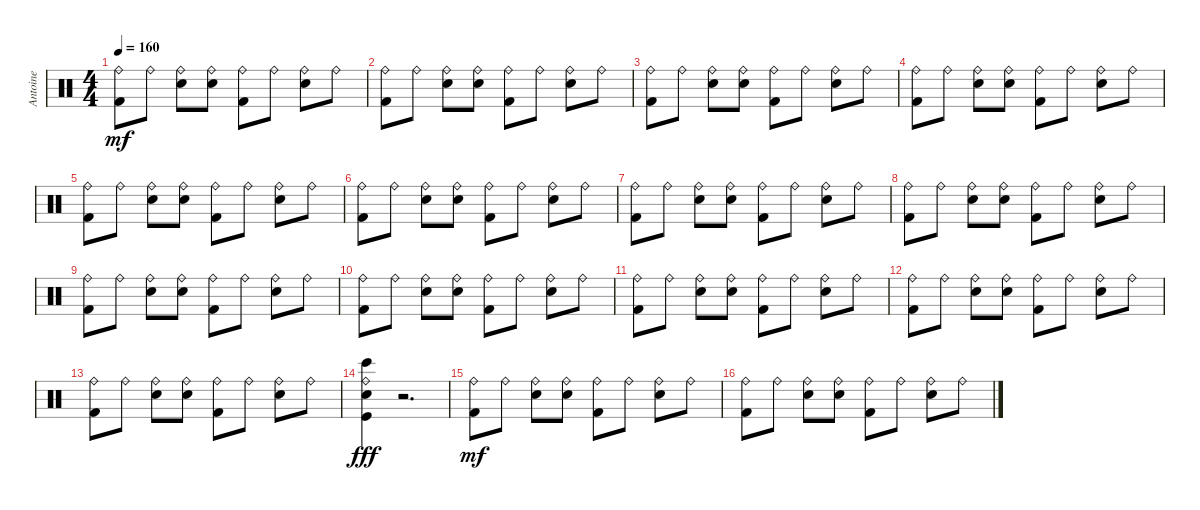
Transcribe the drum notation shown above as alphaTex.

\track ("Antoine" "Antoine") {instrument percussion}
\staff {score}
\articulation defaults
\ts (4 4)
\tempo 160
\clef neutral
\ks c
("Kick (hit) 2" "Ride (bell)").8{dy mf} "Ride (bell)".8 ("Electric Snare (hit)" "Ride (bell)").8 ("Electric Snare (hit)" "Ride (bell)").8 ("Kick (hit) 2" "Ride (bell)").8 "Ride (bell)".8 ("Electric Snare (hit)" "Ride (bell)").8 "Ride (bell)".8 |
("Kick (hit) 2" "Ride (bell)").8 "Ride (bell)".8 ("Electric Snare (hit)" "Ride (bell)").8 ("Electric Snare (hit)" "Ride (bell)").8 ("Kick (hit) 2" "Ride (bell)").8 "Ride (bell)".8 ("Electric Snare (hit)" "Ride (bell)").8 "Ride (bell)".8 |
("Kick (hit) 2" "Ride (bell)").8 "Ride (bell)".8 ("Electric Snare (hit)" "Ride (bell)").8 ("Electric Snare (hit)" "Ride (bell)").8 ("Kick (hit) 2" "Ride (bell)").8 "Ride (bell)".8 ("Electric Snare (hit)" "Ride (bell)").8 "Ride (bell)".8 |
("Kick (hit) 2" "Ride (bell)").8 "Ride (bell)".8 ("Electric Snare (hit)" "Ride (bell)").8 ("Electric Snare (hit)" "Ride (bell)").8 ("Kick (hit) 2" "Ride (bell)").8 "Ride (bell)".8 ("Electric Snare (hit)" "Ride (bell)").8 "Ride (bell)".8 |
("Kick (hit) 2" "Ride (bell)").8 "Ride (bell)".8 ("Electric Snare (hit)" "Ride (bell)").8 ("Electric Snare (hit)" "Ride (bell)").8 ("Kick (hit) 2" "Ride (bell)").8 "Ride (bell)".8 ("Electric Snare (hit)" "Ride (bell)").8 "Ride (bell)".8 |
("Kick (hit) 2" "Ride (bell)").8 "Ride (bell)".8 ("Electric Snare (hit)" "Ride (bell)").8 ("Electric Snare (hit)" "Ride (bell)").8 ("Kick (hit) 2" "Ride (bell)").8 "Ride (bell)".8 ("Electric Snare (hit)" "Ride (bell)").8 "Ride (bell)".8 |
("Kick (hit) 2" "Ride (bell)").8 "Ride (bell)".8 ("Electric Snare (hit)" "Ride (bell)").8 ("Electric Snare (hit)" "Ride (bell)").8 ("Kick (hit) 2" "Ride (bell)").8 "Ride (bell)".8 ("Electric Snare (hit)" "Ride (bell)").8 "Ride (bell)".8 |
("Kick (hit) 2" "Ride (bell)").8 "Ride (bell)".8 ("Electric Snare (hit)" "Ride (bell)").8 ("Electric Snare (hit)" "Ride (bell)").8 ("Kick (hit) 2" "Ride (bell)").8 "Ride (bell)".8 ("Electric Snare (hit)" "Ride (bell)").8 "Ride (bell)".8 |
("Kick (hit) 2" "Ride (bell)").8 "Ride (bell)".8 ("Electric Snare (hit)" "Ride (bell)").8 ("Electric Snare (hit)" "Ride (bell)").8 ("Kick (hit) 2" "Ride (bell)").8 "Ride (bell)".8 ("Electric Snare (hit)" "Ride (bell)").8 "Ride (bell)".8 |
("Kick (hit) 2" "Ride (bell)").8 "Ride (bell)".8 ("Electric Snare (hit)" "Ride (bell)").8 ("Electric Snare (hit)" "Ride (bell)").8 ("Kick (hit) 2" "Ride (bell)").8 "Ride (bell)".8 ("Electric Snare (hit)" "Ride (bell)").8 "Ride (bell)".8 |
("Kick (hit) 2" "Ride (bell)").8 "Ride (bell)".8 ("Electric Snare (hit)" "Ride (bell)").8 ("Electric Snare (hit)" "Ride (bell)").8 ("Kick (hit) 2" "Ride (bell)").8 "Ride (bell)".8 ("Electric Snare (hit)" "Ride (bell)").8 "Ride (bell)".8 |
("Kick (hit) 2" "Ride (bell)").8 "Ride (bell)".8 ("Electric Snare (hit)" "Ride (bell)").8 ("Electric Snare (hit)" "Ride (bell)").8 ("Kick (hit) 2" "Ride (bell)").8 "Ride (bell)".8 ("Electric Snare (hit)" "Ride (bell)").8 "Ride (bell)".8 |
("Kick (hit) 2" "Ride (bell)").8 "Ride (bell)".8 ("Electric Snare (hit)" "Ride (bell)").8 ("Electric Snare (hit)" "Ride (bell)").8 ("Kick (hit) 2" "Ride (bell)").8 "Ride (bell)".8 ("Electric Snare (hit)" "Ride (bell)").8 "Ride (bell)".8 |
("Bongo High (hit)" "Electric Snare (hit)" "Kick (hit)" "Ride (bell)").4{dy fff} r.2{d} |
("Kick (hit) 2" "Ride (bell)").8{dy mf} "Ride (bell)".8 ("Electric Snare (hit)" "Ride (bell)").8 ("Electric Snare (hit)" "Ride (bell)").8 ("Kick (hit) 2" "Ride (bell)").8 "Ride (bell)".8 ("Electric Snare (hit)" "Ride (bell)").8 "Ride (bell)".8 |
("Kick (hit) 2" "Ride (bell)").8 "Ride (bell)".8 ("Electric Snare (hit)" "Ride (bell)").8 ("Electric Snare (hit)" "Ride (bell)").8 ("Kick (hit) 2" "Ride (bell)").8 "Ride (bell)".8 ("Electric Snare (hit)" "Ride (bell)").8 "Ride (bell)".8
